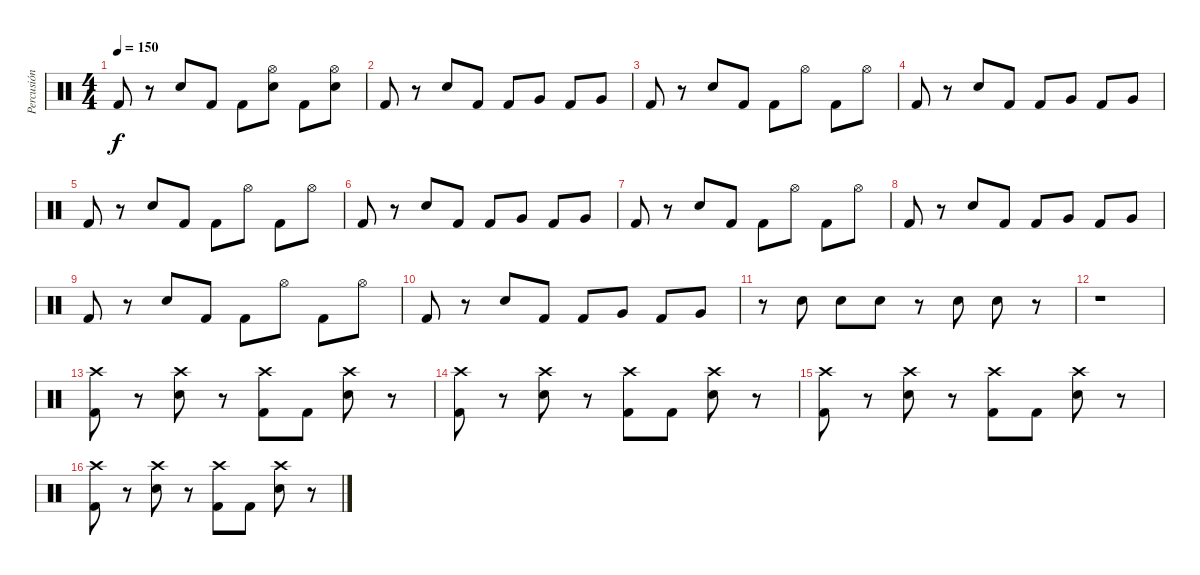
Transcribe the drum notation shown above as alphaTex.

\track ("Percusión" "Percusión") {instrument percussion}
\staff {score}
\articulation defaults
\ts (4 4)
\tempo 150
\clef neutral
\ks c "Kick (hit) 2".8{dy f}
r.8 "Snare (hit) 2".8 "Kick (hit) 2".8 "Kick (hit) 2".8 ("Hi-Hat (open)" "Snare (hit) 2").8 "Kick (hit) 2".8 ("Hi-Hat (open)" "Snare (hit) 2").8 |
"Kick (hit) 2".8 r.8 "Snare (hit) 2".8 "Kick (hit) 2".8 "Kick (hit) 2".8 "Very Low Tom (hit)".8 "Kick (hit) 2".8 "Very Low Tom (hit)".8 |
"Kick (hit) 2".8 r.8 "Snare (hit) 2".8 "Kick (hit) 2".8 "Kick (hit) 2".8 "Hi-Hat (open)".8 "Kick (hit) 2".8 "Hi-Hat (open)".8 |
"Kick (hit) 2".8 r.8 "Snare (hit) 2".8 "Kick (hit) 2".8 "Kick (hit) 2".8 "Very Low Tom (hit)".8 "Kick (hit) 2".8 "Very Low Tom (hit)".8 |
"Kick (hit) 2".8 r.8 "Snare (hit) 2".8 "Kick (hit) 2".8 "Kick (hit) 2".8 "Hi-Hat (open)".8 "Kick (hit) 2".8 "Hi-Hat (open)".8 |
"Kick (hit) 2".8 r.8 "Snare (hit) 2".8 "Kick (hit) 2".8 "Kick (hit) 2".8 "Very Low Tom (hit)".8 "Kick (hit) 2".8 "Very Low Tom (hit)".8 |
"Kick (hit) 2".8 r.8 "Snare (hit) 2".8 "Kick (hit) 2".8 "Kick (hit) 2".8 "Hi-Hat (open)".8 "Kick (hit) 2".8 "Hi-Hat (open)".8 |
"Kick (hit) 2".8 r.8 "Snare (hit) 2".8 "Kick (hit) 2".8 "Kick (hit) 2".8 "Very Low Tom (hit)".8 "Kick (hit) 2".8 "Very Low Tom (hit)".8 |
"Kick (hit) 2".8 r.8 "Snare (hit) 2".8 "Kick (hit) 2".8 "Kick (hit) 2".8 "Hi-Hat (open)".8 "Kick (hit) 2".8 "Hi-Hat (open)".8 |
"Kick (hit) 2".8 r.8 "Snare (hit) 2".8 "Kick (hit) 2".8 "Kick (hit) 2".8 "Very Low Tom (hit)".8 "Kick (hit) 2".8 "Very Low Tom (hit)".8 |
r.8 "Snare (hit) 2".8 "Snare (hit) 2".8 "Snare (hit) 2".8 r.8 "Snare (hit) 2".8 "Snare (hit) 2".8 r.8 |
r.1 |
("Crash high (hit)" "Kick (hit) 2").8 r.8 ("Crash high (hit)" "Snare (hit) 2").8 r.8 ("Crash high (hit)" "Kick (hit) 2").8 "Kick (hit) 2".8 ("Crash high (hit)" "Snare (hit) 2").8 r.8 |
("Crash high (hit)" "Kick (hit) 2").8 r.8 ("Crash high (hit)" "Snare (hit) 2").8 r.8 ("Crash high (hit)" "Kick (hit) 2").8 "Kick (hit) 2".8 ("Crash high (hit)" "Snare (hit) 2").8 r.8 |
("Crash high (hit)" "Kick (hit) 2").8 r.8 ("Crash high (hit)" "Snare (hit) 2").8 r.8 ("Crash high (hit)" "Kick (hit) 2").8 "Kick (hit) 2".8 ("Crash high (hit)" "Snare (hit) 2").8 r.8 |
("Crash high (hit)" "Kick (hit) 2").8 r.8 ("Crash high (hit)" "Snare (hit) 2").8 r.8 ("Crash high (hit)" "Kick (hit) 2").8 "Kick (hit) 2".8 ("Crash high (hit)" "Snare (hit) 2").8 r.8
